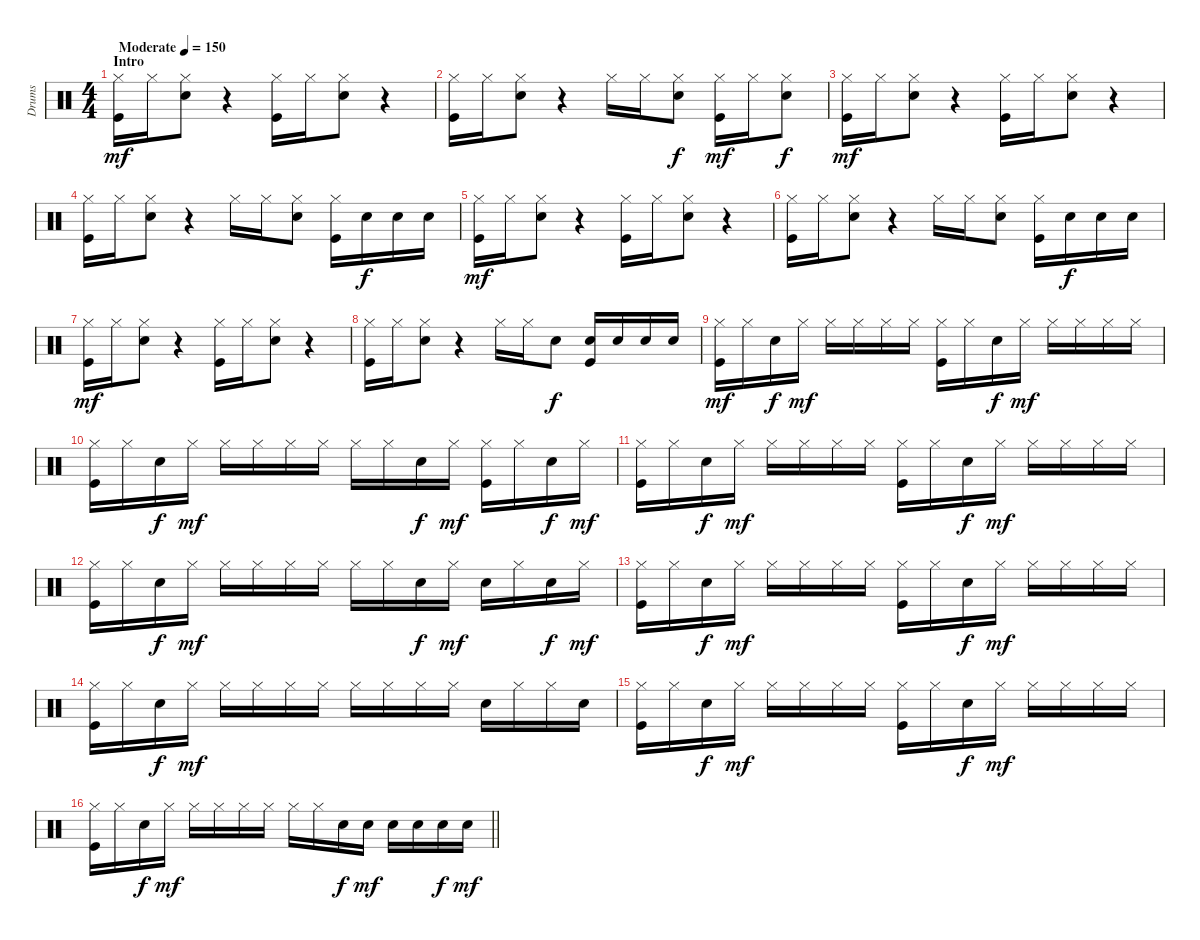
\track ("Drums" "Drums") {instrument percussion}
\staff {score}
\articulation defaults
\ts (4 4)
\section ("" "Intro")
\tempo (150 "Moderate")
\clef neutral
\ks c
("Hi-Hat (closed)" "Kick (hit)").16{dy mf} "Hi-Hat (closed)".16 ("Hi-Hat (closed)" "Snare (hit) 2").8 r.4 ("Hi-Hat (closed)" "Kick (hit)").16 "Hi-Hat (closed)".16 ("Hi-Hat (closed)" "Snare (hit) 2").8 r.4 |
("Hi-Hat (closed)" "Kick (hit)").16 "Hi-Hat (closed)".16 ("Hi-Hat (closed)" "Snare (hit) 2").8 r.4 "Hi-Hat (closed)".16 "Hi-Hat (closed)".16 ("Hi-Hat (closed)" "Snare (hit) 2").8{dy f} ("Hi-Hat (closed)" "Kick (hit)").16{dy mf} "Hi-Hat (closed)".16 ("Hi-Hat (closed)" "Snare (hit) 2").8{dy f} |
("Hi-Hat (closed)" "Kick (hit)").16{dy mf} "Hi-Hat (closed)".16 ("Hi-Hat (closed)" "Snare (hit) 2").8 r.4 ("Hi-Hat (closed)" "Kick (hit)").16 "Hi-Hat (closed)".16 ("Hi-Hat (closed)" "Snare (hit) 2").8 r.4 |
("Hi-Hat (closed)" "Kick (hit)").16 "Hi-Hat (closed)".16 ("Hi-Hat (closed)" "Snare (hit) 2").8 r.4 "Hi-Hat (closed)".16 "Hi-Hat (closed)".16 ("Hi-Hat (closed)" "Snare (hit) 2").8 ("Hi-Hat (closed)" "Kick (hit)").16 "Snare (hit) 2".16{dy f} "Snare (hit) 2".16 "Snare (hit) 2".16 |
("Hi-Hat (closed)" "Kick (hit)").16{dy mf} "Hi-Hat (closed)".16 ("Hi-Hat (closed)" "Snare (hit) 2").8 r.4 ("Hi-Hat (closed)" "Kick (hit)").16 "Hi-Hat (closed)".16 ("Hi-Hat (closed)" "Snare (hit) 2").8 r.4 |
("Hi-Hat (closed)" "Kick (hit)").16 "Hi-Hat (closed)".16 ("Hi-Hat (closed)" "Snare (hit) 2").8 r.4 "Hi-Hat (closed)".16 "Hi-Hat (closed)".16 ("Hi-Hat (closed)" "Snare (hit) 2").8 ("Hi-Hat (closed)" "Kick (hit)").16 "Snare (hit) 2".16{dy f} "Snare (hit) 2".16 "Snare (hit) 2".16 |
("Hi-Hat (closed)" "Kick (hit)").16{dy mf} "Hi-Hat (closed)".16 ("Hi-Hat (closed)" "Snare (hit) 2").8 r.4 ("Hi-Hat (closed)" "Kick (hit)").16 "Hi-Hat (closed)".16 ("Hi-Hat (closed)" "Snare (hit) 2").8 r.4 |
("Hi-Hat (closed)" "Kick (hit)").16 "Hi-Hat (closed)".16 ("Hi-Hat (closed)" "Snare (hit) 2").8 r.4 "Hi-Hat (closed)".16 "Hi-Hat (closed)".16 "Snare (hit) 2".8{dy f} ("Snare (hit) 2" "Kick (hit)").16 "Snare (hit) 2".16 "Snare (hit) 2".16 "Snare (hit) 2".16 |
("Hi-Hat (closed)" "Kick (hit)").16{dy mf} "Hi-Hat (closed)".16 "Snare (hit) 2".16{dy f} "Hi-Hat (closed)".16{dy mf} "Hi-Hat (closed)".16 "Hi-Hat (closed)".16 "Hi-Hat (closed)".16 "Hi-Hat (closed)".16 ("Hi-Hat (closed)" "Kick (hit)").16 "Hi-Hat (closed)".16 "Snare (hit) 2".16{dy f} "Hi-Hat (closed)".16{dy mf} "Hi-Hat (closed)".16 "Hi-Hat (closed)".16 "Hi-Hat (closed)".16 "Hi-Hat (closed)".16 |
("Hi-Hat (closed)" "Kick (hit)").16 "Hi-Hat (closed)".16 "Snare (hit) 2".16{dy f} "Hi-Hat (closed)".16{dy mf} "Hi-Hat (closed)".16 "Hi-Hat (closed)".16 "Hi-Hat (closed)".16 "Hi-Hat (closed)".16 "Hi-Hat (closed)".16 "Hi-Hat (closed)".16 "Snare (hit) 2".16{dy f} "Hi-Hat (closed)".16{dy mf} ("Hi-Hat (closed)" "Kick (hit)").16 "Hi-Hat (closed)".16 "Snare (hit) 2".16{dy f} "Hi-Hat (closed)".16{dy mf} |
("Hi-Hat (closed)" "Kick (hit)").16 "Hi-Hat (closed)".16 "Snare (hit) 2".16{dy f} "Hi-Hat (closed)".16{dy mf} "Hi-Hat (closed)".16 "Hi-Hat (closed)".16 "Hi-Hat (closed)".16 "Hi-Hat (closed)".16 ("Hi-Hat (closed)" "Kick (hit)").16 "Hi-Hat (closed)".16 "Snare (hit) 2".16{dy f} "Hi-Hat (closed)".16{dy mf} "Hi-Hat (closed)".16 "Hi-Hat (closed)".16 "Hi-Hat (closed)".16 "Hi-Hat (closed)".16 |
("Hi-Hat (closed)" "Kick (hit)").16 "Hi-Hat (closed)".16 "Snare (hit) 2".16{dy f} "Hi-Hat (closed)".16{dy mf} "Hi-Hat (closed)".16 "Hi-Hat (closed)".16 "Hi-Hat (closed)".16 "Hi-Hat (closed)".16 "Hi-Hat (closed)".16 "Hi-Hat (closed)".16 "Snare (hit) 2".16{dy f} "Hi-Hat (closed)".16{dy mf} "Snare (hit) 2".16 "Hi-Hat (closed)".16 "Snare (hit) 2".16{dy f} "Hi-Hat (closed)".16{dy mf} |
("Hi-Hat (closed)" "Kick (hit)").16 "Hi-Hat (closed)".16 "Snare (hit) 2".16{dy f} "Hi-Hat (closed)".16{dy mf} "Hi-Hat (closed)".16 "Hi-Hat (closed)".16 "Hi-Hat (closed)".16 "Hi-Hat (closed)".16 ("Hi-Hat (closed)" "Kick (hit)").16 "Hi-Hat (closed)".16 "Snare (hit) 2".16{dy f} "Hi-Hat (closed)".16{dy mf} "Hi-Hat (closed)".16 "Hi-Hat (closed)".16 "Hi-Hat (closed)".16 "Hi-Hat (closed)".16 |
("Hi-Hat (closed)" "Kick (hit)").16 "Hi-Hat (closed)".16 "Snare (hit) 2".16{dy f} "Hi-Hat (closed)".16{dy mf} "Hi-Hat (closed)".16 "Hi-Hat (closed)".16 "Hi-Hat (closed)".16 "Hi-Hat (closed)".16 "Hi-Hat (closed)".16 "Hi-Hat (closed)".16 "Hi-Hat (closed)".16 "Hi-Hat (closed)".16 "Snare (hit) 2".16 "Hi-Hat (closed)".16 "Hi-Hat (closed)".16 "Snare (hit) 2".16 |
("Hi-Hat (closed)" "Kick (hit)").16 "Hi-Hat (closed)".16 "Snare (hit) 2".16{dy f} "Hi-Hat (closed)".16{dy mf} "Hi-Hat (closed)".16 "Hi-Hat (closed)".16 "Hi-Hat (closed)".16 "Hi-Hat (closed)".16 ("Hi-Hat (closed)" "Kick (hit)").16 "Hi-Hat (closed)".16 "Snare (hit) 2".16{dy f} "Hi-Hat (closed)".16{dy mf} "Hi-Hat (closed)".16 "Hi-Hat (closed)".16 "Hi-Hat (closed)".16 "Hi-Hat (closed)".16 |
\barLineRight lightlight
("Hi-Hat (closed)" "Kick (hit)").16 "Hi-Hat (closed)".16 "Snare (hit) 2".16{dy f} "Hi-Hat (closed)".16{dy mf} "Hi-Hat (closed)".16 "Hi-Hat (closed)".16 "Hi-Hat (closed)".16 "Hi-Hat (closed)".16 "Hi-Hat (closed)".16 "Hi-Hat (closed)".16 "Snare (hit) 2".16{dy f} "Snare (hit) 2".16{dy mf} "Snare (hit) 2".16 "Snare (hit) 2".16 "Snare (hit) 2".16{dy f} "Snare (hit) 2".16{dy mf}
